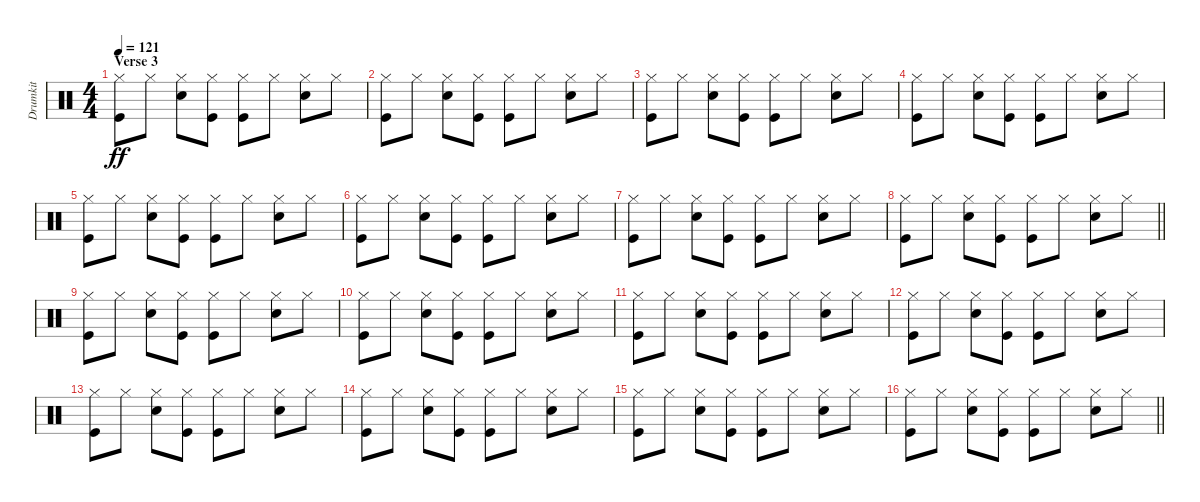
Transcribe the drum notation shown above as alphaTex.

\track ("Drumkit" "Drumkit") {instrument percussion}
\staff {score}
\articulation defaults
\ts (4 4)
\section ("" "Verse 3")
\tempo 121
\clef neutral
\ks c
("Kick (hit)" "Hi-Hat (closed)").8{dy ff} "Hi-Hat (closed)".8 ("Hi-Hat (closed)" "Snare (hit) 2").8 ("Kick (hit)" "Hi-Hat (closed)").8 ("Hi-Hat (closed)" "Kick (hit)").8 "Hi-Hat (closed)".8 ("Hi-Hat (closed)" "Snare (hit) 2").8 "Hi-Hat (closed)".8 |
("Kick (hit)" "Hi-Hat (closed)").8 "Hi-Hat (closed)".8 ("Hi-Hat (closed)" "Snare (hit) 2").8 ("Kick (hit)" "Hi-Hat (closed)").8 ("Hi-Hat (closed)" "Kick (hit)").8 "Hi-Hat (closed)".8 ("Hi-Hat (closed)" "Snare (hit) 2").8 "Hi-Hat (closed)".8 |
("Kick (hit)" "Hi-Hat (closed)").8 "Hi-Hat (closed)".8 ("Hi-Hat (closed)" "Snare (hit) 2").8 ("Kick (hit)" "Hi-Hat (closed)").8 ("Hi-Hat (closed)" "Kick (hit)").8 "Hi-Hat (closed)".8 ("Hi-Hat (closed)" "Snare (hit) 2").8 "Hi-Hat (closed)".8 |
("Kick (hit)" "Hi-Hat (closed)").8 "Hi-Hat (closed)".8 ("Hi-Hat (closed)" "Snare (hit) 2").8 ("Kick (hit)" "Hi-Hat (closed)").8 ("Hi-Hat (closed)" "Kick (hit)").8 "Hi-Hat (closed)".8 ("Hi-Hat (closed)" "Snare (hit) 2").8 "Hi-Hat (closed)".8 |
("Kick (hit)" "Hi-Hat (closed)").8 "Hi-Hat (closed)".8 ("Hi-Hat (closed)" "Snare (hit) 2").8 ("Kick (hit)" "Hi-Hat (closed)").8 ("Hi-Hat (closed)" "Kick (hit)").8 "Hi-Hat (closed)".8 ("Hi-Hat (closed)" "Snare (hit) 2").8 "Hi-Hat (closed)".8 |
("Kick (hit)" "Hi-Hat (closed)").8 "Hi-Hat (closed)".8 ("Hi-Hat (closed)" "Snare (hit) 2").8 ("Kick (hit)" "Hi-Hat (closed)").8 ("Hi-Hat (closed)" "Kick (hit)").8 "Hi-Hat (closed)".8 ("Hi-Hat (closed)" "Snare (hit) 2").8 "Hi-Hat (closed)".8 |
("Kick (hit)" "Hi-Hat (closed)").8 "Hi-Hat (closed)".8 ("Hi-Hat (closed)" "Snare (hit) 2").8 ("Kick (hit)" "Hi-Hat (closed)").8 ("Hi-Hat (closed)" "Kick (hit)").8 "Hi-Hat (closed)".8 ("Hi-Hat (closed)" "Snare (hit) 2").8 "Hi-Hat (closed)".8 |
\barLineRight lightlight
("Kick (hit)" "Hi-Hat (closed)").8 "Hi-Hat (closed)".8 ("Hi-Hat (closed)" "Snare (hit) 2").8 ("Kick (hit)" "Hi-Hat (closed)").8 ("Hi-Hat (closed)" "Kick (hit)").8 "Hi-Hat (closed)".8 ("Hi-Hat (closed)" "Snare (hit) 2").8 "Hi-Hat (closed)".8 |
("Kick (hit)" "Hi-Hat (closed)").8 "Hi-Hat (closed)".8 ("Hi-Hat (closed)" "Snare (hit) 2").8 ("Kick (hit)" "Hi-Hat (closed)").8 ("Hi-Hat (closed)" "Kick (hit)").8 "Hi-Hat (closed)".8 ("Hi-Hat (closed)" "Snare (hit) 2").8 "Hi-Hat (closed)".8 |
("Kick (hit)" "Hi-Hat (closed)").8 "Hi-Hat (closed)".8 ("Hi-Hat (closed)" "Snare (hit) 2").8 ("Kick (hit)" "Hi-Hat (closed)").8 ("Hi-Hat (closed)" "Kick (hit)").8 "Hi-Hat (closed)".8 ("Hi-Hat (closed)" "Snare (hit) 2").8 "Hi-Hat (closed)".8 |
("Kick (hit)" "Hi-Hat (closed)").8 "Hi-Hat (closed)".8 ("Hi-Hat (closed)" "Snare (hit) 2").8 ("Kick (hit)" "Hi-Hat (closed)").8 ("Hi-Hat (closed)" "Kick (hit)").8 "Hi-Hat (closed)".8 ("Hi-Hat (closed)" "Snare (hit) 2").8 "Hi-Hat (closed)".8 |
("Kick (hit)" "Hi-Hat (closed)").8 "Hi-Hat (closed)".8 ("Hi-Hat (closed)" "Snare (hit) 2").8 ("Kick (hit)" "Hi-Hat (closed)").8 ("Hi-Hat (closed)" "Kick (hit)").8 "Hi-Hat (closed)".8 ("Hi-Hat (closed)" "Snare (hit) 2").8 "Hi-Hat (closed)".8 |
("Kick (hit)" "Hi-Hat (closed)").8 "Hi-Hat (closed)".8 ("Hi-Hat (closed)" "Snare (hit) 2").8 ("Kick (hit)" "Hi-Hat (closed)").8 ("Hi-Hat (closed)" "Kick (hit)").8 "Hi-Hat (closed)".8 ("Hi-Hat (closed)" "Snare (hit) 2").8 "Hi-Hat (closed)".8 |
("Kick (hit)" "Hi-Hat (closed)").8 "Hi-Hat (closed)".8 ("Hi-Hat (closed)" "Snare (hit) 2").8 ("Kick (hit)" "Hi-Hat (closed)").8 ("Hi-Hat (closed)" "Kick (hit)").8 "Hi-Hat (closed)".8 ("Hi-Hat (closed)" "Snare (hit) 2").8 "Hi-Hat (closed)".8 |
("Kick (hit)" "Hi-Hat (closed)").8 "Hi-Hat (closed)".8 ("Hi-Hat (closed)" "Snare (hit) 2").8 ("Kick (hit)" "Hi-Hat (closed)").8 ("Hi-Hat (closed)" "Kick (hit)").8 "Hi-Hat (closed)".8 ("Hi-Hat (closed)" "Snare (hit) 2").8 "Hi-Hat (closed)".8 |
\barLineRight lightlight
("Kick (hit)" "Hi-Hat (closed)").8 "Hi-Hat (closed)".8 ("Hi-Hat (closed)" "Snare (hit) 2").8 ("Kick (hit)" "Hi-Hat (closed)").8 ("Hi-Hat (closed)" "Kick (hit)").8 "Hi-Hat (closed)".8 ("Hi-Hat (closed)" "Snare (hit) 2").8 "Hi-Hat (closed)".8
